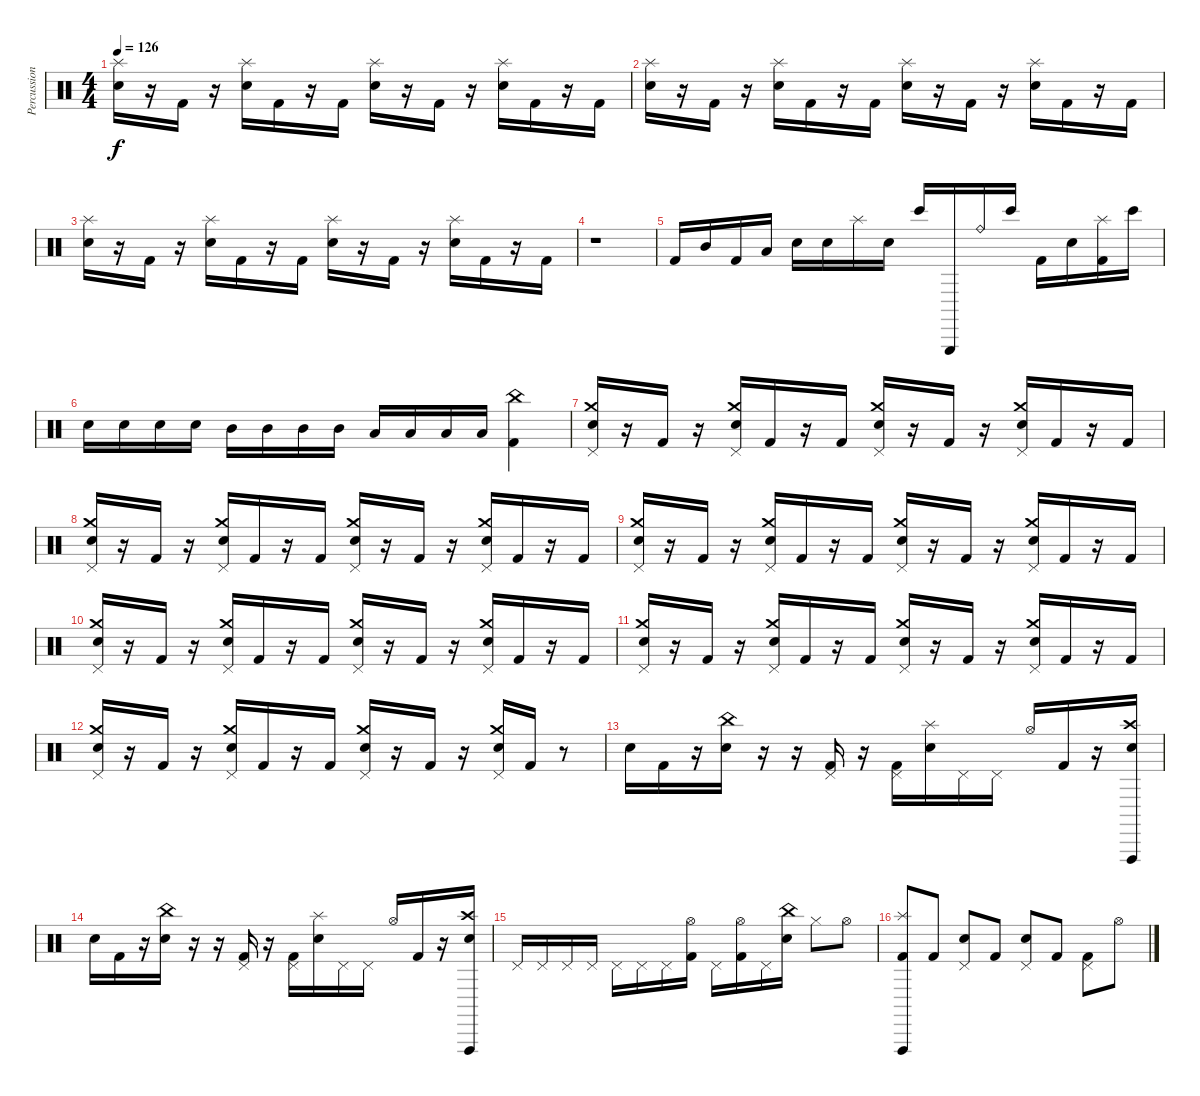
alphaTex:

\track ("Percussions" "Percussion") {instrument percussion}
\staff {score}
\articulation defaults
\ts (4 4)
\tempo 126
\clef neutral
\ks c
("Splash (hit)" "Electric Snare (hit)").16{dy f} r.16 "Kick (hit) 2".16 r.16 ("Splash (hit)" "Electric Snare (hit)").16 "Kick (hit) 2".16 r.16 "Kick (hit) 2".16 ("Splash (hit)" "Electric Snare (hit)").16 r.16 "Kick (hit) 2".16 r.16 ("Splash (hit)" "Electric Snare (hit)").16 "Kick (hit) 2".16 r.16 "Kick (hit) 2".16 |
("Splash (hit)" "Electric Snare (hit)").16 r.16 "Kick (hit) 2".16 r.16 ("Splash (hit)" "Electric Snare (hit)").16 "Kick (hit) 2".16 r.16 "Kick (hit) 2".16 ("Splash (hit)" "Electric Snare (hit)").16 r.16 "Kick (hit) 2".16 r.16 ("Splash (hit)" "Electric Snare (hit)").16 "Kick (hit) 2".16 r.16 "Kick (hit) 2".16 |
("Splash (hit)" "Electric Snare (hit)").16 r.16 "Kick (hit) 2".16 r.16 ("Splash (hit)" "Electric Snare (hit)").16 "Kick (hit) 2".16 r.16 "Kick (hit) 2".16 ("Splash (hit)" "Electric Snare (hit)").16 r.16 "Kick (hit) 2".16 r.16 ("Splash (hit)" "Electric Snare (hit)").16 "Kick (hit) 2".16 r.16 "Kick (hit) 2".16 |
r.1 |
"Kick (hit) 2".16 "Mid Tom (hit)".16 "Kick (hit) 2".16 "Low Tom (hit)".16 "Electric Snare (hit)".16 "Electric Snare (hit)".16 "Splash (hit)".16 "Electric Snare (hit)".16 "Bongo High (hit)".16 "Triangle (hit)".16 "Ride (bell)".16 "Bongo High (hit)".16 "Kick (hit) 2".16 "Electric Snare (hit)".16 ("Splash (hit)" "Kick (hit) 2").16 "Bongo High (hit)".16 |
"Electric Snare (hit)".16 "Electric Snare (hit)".16 "Electric Snare (hit)".16 "Electric Snare (hit)".16 "Mid Tom (hit)".16 "Mid Tom (hit)".16 "Mid Tom (hit)".16 "Mid Tom (hit)".16 "Low Tom (hit)".16 "Low Tom (hit)".16 "Low Tom (hit)".16 "Low Tom (hit)".16 ("China (hit)" "Kick (hit) 2").4 |
("Crash medium (hit)" "Pedal Hi-Hat (hit)" "Electric Snare (hit)").16 r.16 "Kick (hit) 2".16 r.16 ("Crash medium (hit)" "Pedal Hi-Hat (hit)" "Electric Snare (hit)").16 "Kick (hit) 2".16 r.16 "Kick (hit) 2".16 ("Crash medium (hit)" "Pedal Hi-Hat (hit)" "Electric Snare (hit)").16 r.16 "Kick (hit) 2".16 r.16 ("Crash medium (hit)" "Pedal Hi-Hat (hit)" "Electric Snare (hit)").16 "Kick (hit) 2".16 r.16 "Kick (hit) 2".16 |
("Crash medium (hit)" "Pedal Hi-Hat (hit)" "Electric Snare (hit)").16 r.16 "Kick (hit) 2".16 r.16 ("Crash medium (hit)" "Pedal Hi-Hat (hit)" "Electric Snare (hit)").16 "Kick (hit) 2".16 r.16 "Kick (hit) 2".16 ("Crash medium (hit)" "Pedal Hi-Hat (hit)" "Electric Snare (hit)").16 r.16 "Kick (hit) 2".16 r.16 ("Crash medium (hit)" "Pedal Hi-Hat (hit)" "Electric Snare (hit)").16 "Kick (hit) 2".16 r.16 "Kick (hit) 2".16 |
("Crash medium (hit)" "Pedal Hi-Hat (hit)" "Electric Snare (hit)").16 r.16 "Kick (hit) 2".16 r.16 ("Crash medium (hit)" "Pedal Hi-Hat (hit)" "Electric Snare (hit)").16 "Kick (hit) 2".16 r.16 "Kick (hit) 2".16 ("Crash medium (hit)" "Pedal Hi-Hat (hit)" "Electric Snare (hit)").16 r.16 "Kick (hit) 2".16 r.16 ("Crash medium (hit)" "Pedal Hi-Hat (hit)" "Electric Snare (hit)").16 "Kick (hit) 2".16 r.16 "Kick (hit) 2".16 |
("Crash medium (hit)" "Pedal Hi-Hat (hit)" "Electric Snare (hit)").16 r.16 "Kick (hit) 2".16 r.16 ("Crash medium (hit)" "Pedal Hi-Hat (hit)" "Electric Snare (hit)").16 "Kick (hit) 2".16 r.16 "Kick (hit) 2".16 ("Crash medium (hit)" "Pedal Hi-Hat (hit)" "Electric Snare (hit)").16 r.16 "Kick (hit) 2".16 r.16 ("Crash medium (hit)" "Pedal Hi-Hat (hit)" "Electric Snare (hit)").16 "Kick (hit) 2".16 r.16 "Kick (hit) 2".16 |
("Crash medium (hit)" "Pedal Hi-Hat (hit)" "Electric Snare (hit)").16 r.16 "Kick (hit) 2".16 r.16 ("Crash medium (hit)" "Pedal Hi-Hat (hit)" "Electric Snare (hit)").16 "Kick (hit) 2".16 r.16 "Kick (hit) 2".16 ("Crash medium (hit)" "Pedal Hi-Hat (hit)" "Electric Snare (hit)").16 r.16 "Kick (hit) 2".16 r.16 ("Crash medium (hit)" "Pedal Hi-Hat (hit)" "Electric Snare (hit)").16 "Kick (hit) 2".16 r.16 "Kick (hit) 2".16 |
("Crash medium (hit)" "Pedal Hi-Hat (hit)" "Electric Snare (hit)").16 r.16 "Kick (hit) 2".16 r.16 ("Crash medium (hit)" "Pedal Hi-Hat (hit)" "Electric Snare (hit)").16 "Kick (hit) 2".16 r.16 "Kick (hit) 2".16 ("Crash medium (hit)" "Pedal Hi-Hat (hit)" "Electric Snare (hit)").16 r.16 "Kick (hit) 2".16 r.16 ("Crash medium (hit)" "Pedal Hi-Hat (hit)" "Electric Snare (hit)").16 "Kick (hit) 2".16 r.8 |
"Electric Snare (hit)".16 "Kick (hit) 2".16 r.16 ("China (hit)" "Electric Snare (hit)").16 r.16 r.16 ("Pedal Hi-Hat (hit)" "Kick (hit) 2").16 r.16 ("Pedal Hi-Hat (hit)" "Kick (hit) 2").16 ("Splash (hit)" "Electric Snare (hit)").16 "Pedal Hi-Hat (hit)".16 "Pedal Hi-Hat (hit)".16 "Hi-Hat (open)".16 "Kick (hit) 2".16 r.16 ("Crash high (hit)" "Vibraslap (hit)" "Electric Snare (hit)").16 |
"Electric Snare (hit)".16 "Kick (hit) 2".16 r.16 ("China (hit)" "Electric Snare (hit)").16 r.16 r.16 ("Pedal Hi-Hat (hit)" "Kick (hit) 2").16 r.16 ("Pedal Hi-Hat (hit)" "Kick (hit) 2").16 ("Splash (hit)" "Electric Snare (hit)").16 "Pedal Hi-Hat (hit)".16 "Pedal Hi-Hat (hit)".16 "Hi-Hat (open)".16 "Kick (hit) 2".16 r.16 ("Crash high (hit)" "Vibraslap (hit)" "Electric Snare (hit)").16 |
"Pedal Hi-Hat (hit)".16 "Pedal Hi-Hat (hit)".16 "Pedal Hi-Hat (hit)".16 "Pedal Hi-Hat (hit)".16 "Pedal Hi-Hat (hit)".16 "Pedal Hi-Hat (hit)".16 "Pedal Hi-Hat (hit)".16 ("Hi-Hat (open)" "Kick (hit) 2").16 "Pedal Hi-Hat (hit)".16 ("Hi-Hat (open)" "Kick (hit) 2").16 "Pedal Hi-Hat (hit)".16 ("China (hit)" "Electric Snare (hit)").16 "Hi-Hat (closed)".8 "Hi-Hat (open)".8 |
("Splash (hit)" "Vibraslap (hit)" "Kick (hit) 2").8 "Kick (hit) 2".8 ("Pedal Hi-Hat (hit)" "Electric Snare (hit)").8 "Kick (hit) 2".8 ("Pedal Hi-Hat (hit)" "Electric Snare (hit)").8 "Kick (hit) 2".8 ("Pedal Hi-Hat (hit)" "Kick (hit) 2").8 "Hi-Hat (open)".8
